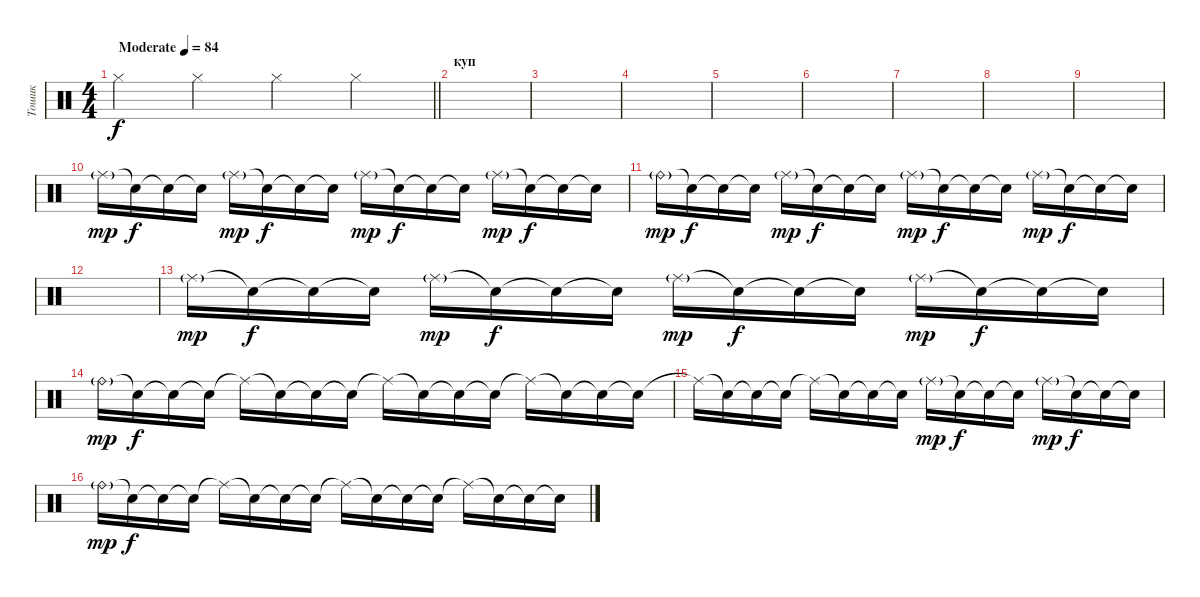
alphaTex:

\track ("Тошик" "Тошик") {instrument percussion}
\staff {score}
\articulation defaults
\ts (4 4)
\tempo (84 "Moderate")
\clef neutral
\barLineRight lightlight
\ks c "Hi-Hat (closed)".4{dy f} "Hi-Hat (closed)".4 "Hi-Hat (closed)".4 "Hi-Hat (closed)".4
|
\section ("" "куп")
|
|
|
|
|
|
|
|
"Ride (middle)"{g}.16{dy mp} "Snare (hit)"{t}.16{dy f} "Snare (hit)"{t}.16 "Snare (hit)"{t}.16 "Ride (middle)"{g}.16{dy mp} "Snare (hit)"{t}.16{dy f} "Snare (hit)"{t}.16 "Snare (hit)"{t}.16 "Ride (middle)"{g}.16{dy mp} "Snare (hit)"{t}.16{dy f} "Snare (hit)"{t}.16 "Snare (hit)"{t}.16 "Ride (middle)"{g}.16{dy mp} "Snare (hit)"{t}.16{dy f} "Snare (hit)"{t}.16 "Snare (hit)"{t}.16 |
"Ride (bell)"{g}.16{dy mp} "Snare (hit)"{t}.16{dy f} "Snare (hit)"{t}.16 "Snare (hit)"{t}.16 "Ride (middle)"{g}.16{dy mp} "Snare (hit)"{t}.16{dy f} "Snare (hit)"{t}.16 "Snare (hit)"{t}.16 "Ride (middle)"{g}.16{dy mp} "Snare (hit)"{t}.16{dy f} "Snare (hit)"{t}.16 "Snare (hit)"{t}.16 "Ride (middle)"{g}.16{dy mp} "Snare (hit)"{t}.16{dy f} "Snare (hit)"{t}.16 "Snare (hit)"{t}.16 |
|
"Ride (middle)"{g}.16{dy mp} "Snare (hit)"{t}.16{dy f} "Snare (hit)"{t}.16 "Snare (hit)"{t}.16 "Ride (middle)"{g}.16{dy mp} "Snare (hit)"{t}.16{dy f} "Snare (hit)"{t}.16 "Snare (hit)"{t}.16 "Ride (middle)"{g}.16{dy mp} "Snare (hit)"{t}.16{dy f} "Snare (hit)"{t}.16 "Snare (hit)"{t}.16 "Ride (middle)"{g}.16{dy mp} "Snare (hit)"{t}.16{dy f} "Snare (hit)"{t}.16 "Snare (hit)"{t}.16 |
"Ride (bell)"{g}.16{dy mp} "Snare (hit)"{t}.16{dy f} "Snare (hit)"{t}.16 "Snare (hit)"{t}.16 "Ride (middle)"{t}.16 "Snare (hit)"{t}.16 "Snare (hit)"{t}.16 "Snare (hit)"{t}.16 "Ride (middle)"{t}.16 "Snare (hit)"{t}.16 "Snare (hit)"{t}.16 "Snare (hit)"{t}.16 "Ride (middle)"{t}.16 "Snare (hit)"{t}.16 "Snare (hit)"{t}.16 "Snare (hit)"{t}.16 |
"Ride (middle)"{t}.16 "Snare (hit)"{t}.16 "Snare (hit)"{t}.16 "Snare (hit)"{t}.16 "Ride (middle)"{t}.16 "Snare (hit)"{t}.16 "Snare (hit)"{t}.16 "Snare (hit)"{t}.16 "Ride (middle)"{g}.16{dy mp} "Snare (hit)"{t}.16{dy f} "Snare (hit)"{t}.16 "Snare (hit)"{t}.16 "Ride (middle)"{g}.16{dy mp} "Snare (hit)"{t}.16{dy f} "Snare (hit)"{t}.16 "Snare (hit)"{t}.16 |
"Ride (bell)"{g}.16{dy mp} "Snare (hit)"{t}.16{dy f} "Snare (hit)"{t}.16 "Snare (hit)"{t}.16 "Ride (middle)"{t}.16 "Snare (hit)"{t}.16 "Snare (hit)"{t}.16 "Snare (hit)"{t}.16 "Ride (middle)"{t}.16 "Snare (hit)"{t}.16 "Snare (hit)"{t}.16 "Snare (hit)"{t}.16 "Ride (middle)"{t}.16 "Snare (hit)"{t}.16 "Snare (hit)"{t}.16 "Snare (hit)"{t}.16
